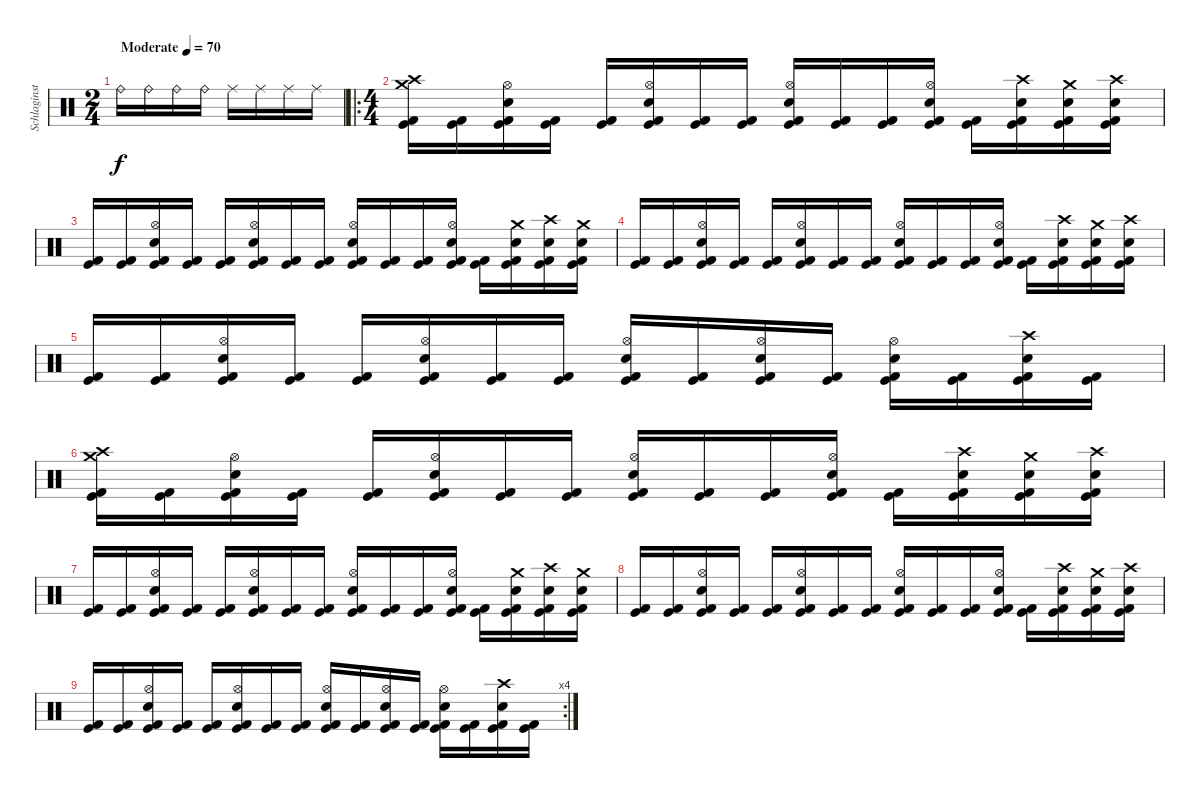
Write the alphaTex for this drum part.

\track ("Schlaginstrumente - Auswahl" "Schlaginst") {instrument percussion}
\staff {score}
\articulation defaults
\ts (2 4)
\tempo (70 "Moderate")
\clef neutral
\ks c "Ride (bell)".16{dy f} "Ride (bell)".16 "Ride (bell)".16 "Ride (bell)".16 "Ride (middle)".16 "Ride (middle)".16 "Ride (middle)".16 "Ride (middle)".16
|
\ro
\ts (4 4)
("Crash high (hit)" "Crash medium (hit)" "Kick (hit)" "Kick (hit) 2").16 ("Kick (hit)" "Kick (hit) 2").16 ("Hi-Hat (open)" "Electric Snare (hit)" "Kick (hit)" "Kick (hit) 2").16 ("Kick (hit)" "Kick (hit) 2").16 ("Kick (hit)" "Kick (hit) 2").16 ("Hi-Hat (open)" "Electric Snare (hit)" "Kick (hit)" "Kick (hit) 2").16 ("Kick (hit)" "Kick (hit) 2").16 ("Kick (hit)" "Kick (hit) 2").16 ("Hi-Hat (open)" "Electric Snare (hit)" "Kick (hit)" "Kick (hit) 2").16 ("Kick (hit)" "Kick (hit) 2").16 ("Kick (hit)" "Kick (hit) 2").16 ("Hi-Hat (open)" "Electric Snare (hit)" "Kick (hit)" "Kick (hit) 2").16 ("Kick (hit)" "Kick (hit) 2").16 ("Crash high (hit)" "Electric Snare (hit)" "Kick (hit)" "Kick (hit) 2").16 ("Crash medium (hit)" "Electric Snare (hit)" "Kick (hit)" "Kick (hit) 2").16 ("Crash high (hit)" "Electric Snare (hit)" "Kick (hit)" "Kick (hit) 2").16 |
("Kick (hit)" "Kick (hit) 2").16 ("Kick (hit)" "Kick (hit) 2").16 ("Hi-Hat (open)" "Electric Snare (hit)" "Kick (hit)" "Kick (hit) 2").16 ("Kick (hit)" "Kick (hit) 2").16 ("Kick (hit)" "Kick (hit) 2").16 ("Hi-Hat (open)" "Electric Snare (hit)" "Kick (hit)" "Kick (hit) 2").16 ("Kick (hit)" "Kick (hit) 2").16 ("Kick (hit)" "Kick (hit) 2").16 ("Hi-Hat (open)" "Electric Snare (hit)" "Kick (hit)" "Kick (hit) 2").16 ("Kick (hit)" "Kick (hit) 2").16 ("Kick (hit)" "Kick (hit) 2").16 ("Hi-Hat (open)" "Electric Snare (hit)" "Kick (hit)" "Kick (hit) 2").16 ("Kick (hit)" "Kick (hit) 2").16 ("Crash medium (hit)" "Electric Snare (hit)" "Kick (hit)" "Kick (hit) 2").16 ("Crash high (hit)" "Electric Snare (hit)" "Kick (hit)" "Kick (hit) 2").16 ("Crash medium (hit)" "Electric Snare (hit)" "Kick (hit)" "Kick (hit) 2").16 |
("Kick (hit)" "Kick (hit) 2").16 ("Kick (hit)" "Kick (hit) 2").16 ("Hi-Hat (open)" "Electric Snare (hit)" "Kick (hit)" "Kick (hit) 2").16 ("Kick (hit)" "Kick (hit) 2").16 ("Kick (hit)" "Kick (hit) 2").16 ("Hi-Hat (open)" "Electric Snare (hit)" "Kick (hit)" "Kick (hit) 2").16 ("Kick (hit)" "Kick (hit) 2").16 ("Kick (hit)" "Kick (hit) 2").16 ("Hi-Hat (open)" "Electric Snare (hit)" "Kick (hit)" "Kick (hit) 2").16 ("Kick (hit)" "Kick (hit) 2").16 ("Kick (hit)" "Kick (hit) 2").16 ("Hi-Hat (open)" "Electric Snare (hit)" "Kick (hit)" "Kick (hit) 2").16 ("Kick (hit)" "Kick (hit) 2").16 ("Crash high (hit)" "Electric Snare (hit)" "Kick (hit)" "Kick (hit) 2").16 ("Crash medium (hit)" "Electric Snare (hit)" "Kick (hit)" "Kick (hit) 2").16 ("Crash high (hit)" "Electric Snare (hit)" "Kick (hit)" "Kick (hit) 2").16 |
("Kick (hit)" "Kick (hit) 2").16 ("Kick (hit)" "Kick (hit) 2").16 ("Hi-Hat (open)" "Electric Snare (hit)" "Kick (hit)" "Kick (hit) 2").16 ("Kick (hit)" "Kick (hit) 2").16 ("Kick (hit)" "Kick (hit) 2").16 ("Hi-Hat (open)" "Electric Snare (hit)" "Kick (hit)" "Kick (hit) 2").16 ("Kick (hit)" "Kick (hit) 2").16 ("Kick (hit)" "Kick (hit) 2").16 ("Hi-Hat (open)" "Electric Snare (hit)" "Kick (hit)" "Kick (hit) 2").16 ("Kick (hit)" "Kick (hit) 2").16 ("Hi-Hat (open)" "Electric Snare (hit)" "Kick (hit)" "Kick (hit) 2").16 ("Kick (hit)" "Kick (hit) 2").16 ("Hi-Hat (open)" "Electric Snare (hit)" "Kick (hit)" "Kick (hit) 2").16 ("Kick (hit)" "Kick (hit) 2").16 ("Crash high (hit)" "Electric Snare (hit)" "Kick (hit)" "Kick (hit) 2").16 ("Kick (hit)" "Kick (hit) 2").16 |
("Crash high (hit)" "Crash medium (hit)" "Kick (hit)" "Kick (hit) 2").16 ("Kick (hit)" "Kick (hit) 2").16 ("Hi-Hat (open)" "Electric Snare (hit)" "Kick (hit)" "Kick (hit) 2").16 ("Kick (hit)" "Kick (hit) 2").16 ("Kick (hit)" "Kick (hit) 2").16 ("Hi-Hat (open)" "Electric Snare (hit)" "Kick (hit)" "Kick (hit) 2").16 ("Kick (hit)" "Kick (hit) 2").16 ("Kick (hit)" "Kick (hit) 2").16 ("Hi-Hat (open)" "Electric Snare (hit)" "Kick (hit)" "Kick (hit) 2").16 ("Kick (hit)" "Kick (hit) 2").16 ("Kick (hit)" "Kick (hit) 2").16 ("Hi-Hat (open)" "Electric Snare (hit)" "Kick (hit)" "Kick (hit) 2").16 ("Kick (hit)" "Kick (hit) 2").16 ("Crash high (hit)" "Electric Snare (hit)" "Kick (hit)" "Kick (hit) 2").16 ("Crash medium (hit)" "Electric Snare (hit)" "Kick (hit)" "Kick (hit) 2").16 ("Crash high (hit)" "Electric Snare (hit)" "Kick (hit)" "Kick (hit) 2").16 |
("Kick (hit)" "Kick (hit) 2").16 ("Kick (hit)" "Kick (hit) 2").16 ("Hi-Hat (open)" "Electric Snare (hit)" "Kick (hit)" "Kick (hit) 2").16 ("Kick (hit)" "Kick (hit) 2").16 ("Kick (hit)" "Kick (hit) 2").16 ("Hi-Hat (open)" "Electric Snare (hit)" "Kick (hit)" "Kick (hit) 2").16 ("Kick (hit)" "Kick (hit) 2").16 ("Kick (hit)" "Kick (hit) 2").16 ("Hi-Hat (open)" "Electric Snare (hit)" "Kick (hit)" "Kick (hit) 2").16 ("Kick (hit)" "Kick (hit) 2").16 ("Kick (hit)" "Kick (hit) 2").16 ("Hi-Hat (open)" "Electric Snare (hit)" "Kick (hit)" "Kick (hit) 2").16 ("Kick (hit)" "Kick (hit) 2").16 ("Crash medium (hit)" "Electric Snare (hit)" "Kick (hit)" "Kick (hit) 2").16 ("Crash high (hit)" "Electric Snare (hit)" "Kick (hit)" "Kick (hit) 2").16 ("Crash medium (hit)" "Electric Snare (hit)" "Kick (hit)" "Kick (hit) 2").16 |
("Kick (hit)" "Kick (hit) 2").16 ("Kick (hit)" "Kick (hit) 2").16 ("Hi-Hat (open)" "Electric Snare (hit)" "Kick (hit)" "Kick (hit) 2").16 ("Kick (hit)" "Kick (hit) 2").16 ("Kick (hit)" "Kick (hit) 2").16 ("Hi-Hat (open)" "Electric Snare (hit)" "Kick (hit)" "Kick (hit) 2").16 ("Kick (hit)" "Kick (hit) 2").16 ("Kick (hit)" "Kick (hit) 2").16 ("Hi-Hat (open)" "Electric Snare (hit)" "Kick (hit)" "Kick (hit) 2").16 ("Kick (hit)" "Kick (hit) 2").16 ("Kick (hit)" "Kick (hit) 2").16 ("Hi-Hat (open)" "Electric Snare (hit)" "Kick (hit)" "Kick (hit) 2").16 ("Kick (hit)" "Kick (hit) 2").16 ("Crash high (hit)" "Electric Snare (hit)" "Kick (hit)" "Kick (hit) 2").16 ("Crash medium (hit)" "Electric Snare (hit)" "Kick (hit)" "Kick (hit) 2").16 ("Crash high (hit)" "Electric Snare (hit)" "Kick (hit)" "Kick (hit) 2").16 |
\rc 4
("Kick (hit)" "Kick (hit) 2").16 ("Kick (hit)" "Kick (hit) 2").16 ("Hi-Hat (open)" "Electric Snare (hit)" "Kick (hit)" "Kick (hit) 2").16 ("Kick (hit)" "Kick (hit) 2").16 ("Kick (hit)" "Kick (hit) 2").16 ("Hi-Hat (open)" "Electric Snare (hit)" "Kick (hit)" "Kick (hit) 2").16 ("Kick (hit)" "Kick (hit) 2").16 ("Kick (hit)" "Kick (hit) 2").16 ("Hi-Hat (open)" "Electric Snare (hit)" "Kick (hit)" "Kick (hit) 2").16 ("Kick (hit)" "Kick (hit) 2").16 ("Hi-Hat (open)" "Electric Snare (hit)" "Kick (hit)" "Kick (hit) 2").16 ("Kick (hit)" "Kick (hit) 2").16 ("Hi-Hat (open)" "Electric Snare (hit)" "Kick (hit)" "Kick (hit) 2").16 ("Kick (hit)" "Kick (hit) 2").16 ("Crash high (hit)" "Electric Snare (hit)" "Kick (hit)" "Kick (hit) 2").16 ("Kick (hit)" "Kick (hit) 2").16
